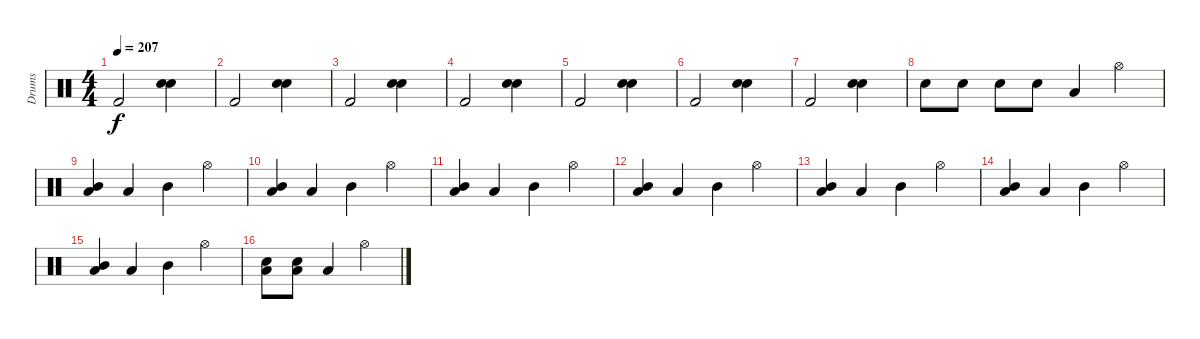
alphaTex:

\track ("Drums" "Drums") {instrument percussion}
\staff {score}
\articulation defaults
\ts (4 4)
\tempo 207
\clef neutral
\ks c "Kick (hit) 2".2{dy f}
("Snare (hit) 2" "Snare (hit) 2").4 |
"Kick (hit) 2".2 ("Snare (hit) 2" "Snare (hit) 2").4 |
"Kick (hit) 2".2 ("Snare (hit) 2" "Snare (hit) 2").4 |
"Kick (hit) 2".2 ("Snare (hit) 2" "Snare (hit) 2").4 |
"Kick (hit) 2".2 ("Snare (hit) 2" "Snare (hit) 2").4 |
"Kick (hit) 2".2 ("Snare (hit) 2" "Snare (hit) 2").4 |
"Kick (hit) 2".2 ("Snare (hit) 2" "Snare (hit) 2").4 |
"Snare (hit) 2".8 "Snare (hit) 2".8 "Snare (hit) 2".8 "Snare (hit) 2".8 "Low Floor Tom (hit)".4 "Hi-Hat (open)".4 |
("Low Tom (hit)" "Mid Tom (hit)").4 "Low Tom (hit)".4 "Mid Tom (hit)".4 "Hi-Hat (open)".4 |
("Low Tom (hit)" "Mid Tom (hit)").4 "Low Tom (hit)".4 "Mid Tom (hit)".4 "Hi-Hat (open)".4 |
("Low Tom (hit)" "Mid Tom (hit)").4 "Low Tom (hit)".4 "Mid Tom (hit)".4 "Hi-Hat (open)".4 |
("Low Tom (hit)" "Mid Tom (hit)").4 "Low Tom (hit)".4 "Mid Tom (hit)".4 "Hi-Hat (open)".4 |
("Low Tom (hit)" "Mid Tom (hit)").4 "Low Tom (hit)".4 "Mid Tom (hit)".4 "Hi-Hat (open)".4 |
("Low Tom (hit)" "Mid Tom (hit)").4 "Low Tom (hit)".4 "Mid Tom (hit)".4 "Hi-Hat (open)".4 |
("Low Tom (hit)" "Mid Tom (hit)").4 "Low Tom (hit)".4 "Mid Tom (hit)".4 "Hi-Hat (open)".4 |
("Low Tom (hit)" "Snare (hit) 2").8 ("Low Tom (hit)" "Snare (hit) 2").8 "Low Tom (hit)".4 "Hi-Hat (open)".4
